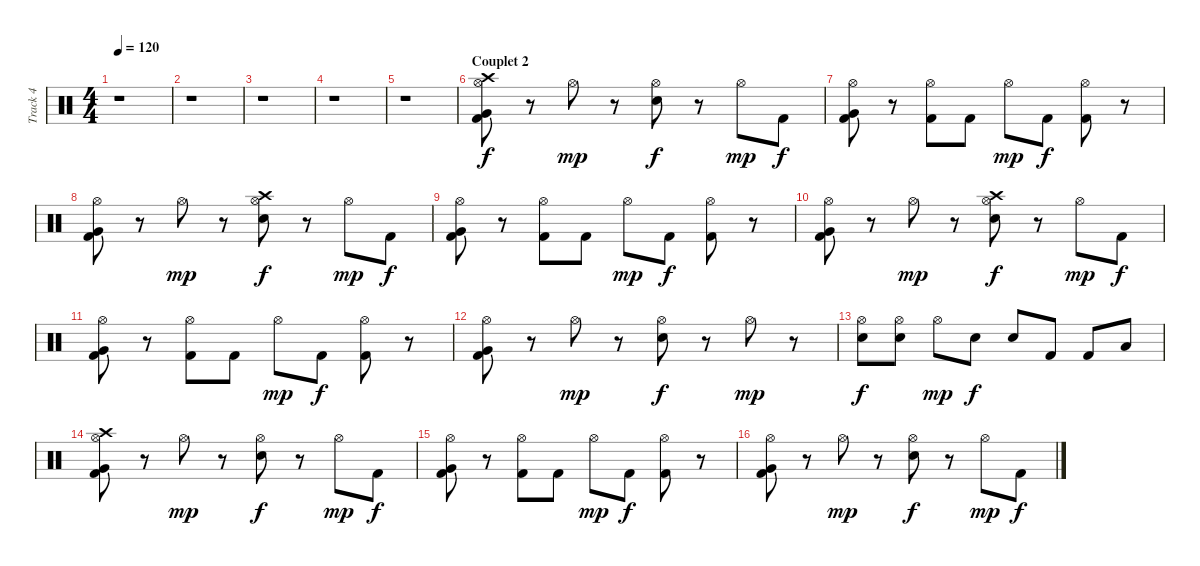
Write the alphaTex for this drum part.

\track ("Track 4" "Track 4") {instrument percussion}
\staff {score}
\articulation defaults
\ts (4 4)
\tempo 120
\clef neutral
\ks c
r.1{dy f} |
r.1 |
r.1 |
r.1 |
r.1 |
\section ("" "Couplet 2")
("Hi-Hat (open)" "Kick (hit) 2" "Very Low Tom (hit)" "Crash high (hit)").8 r.8 "Hi-Hat (open)".8{dy mp} r.8 ("Hi-Hat (open)" "Snare (hit) 2").8{dy f} r.8 "Hi-Hat (open)".8{dy mp} "Kick (hit) 2".8{dy f} |
("Hi-Hat (open)" "Kick (hit) 2" "Very Low Tom (hit)").8 r.8 ("Hi-Hat (open)" "Kick (hit) 2").8 "Kick (hit) 2".8 "Hi-Hat (open)".8{dy mp} "Kick (hit) 2".8{dy f} ("Hi-Hat (open)" "Kick (hit) 2").8 r.8 |
("Hi-Hat (open)" "Kick (hit) 2" "Very Low Tom (hit)").8 r.8 "Hi-Hat (open)".8{dy mp} r.8 ("Hi-Hat (open)" "Snare (hit) 2" "Crash high (hit)").8{dy f} r.8 "Hi-Hat (open)".8{dy mp} "Kick (hit) 2".8{dy f} |
("Hi-Hat (open)" "Kick (hit) 2" "Very Low Tom (hit)").8 r.8 ("Hi-Hat (open)" "Kick (hit) 2").8 "Kick (hit) 2".8 "Hi-Hat (open)".8{dy mp} "Kick (hit) 2".8{dy f} ("Hi-Hat (open)" "Kick (hit) 2").8 r.8 |
("Hi-Hat (open)" "Kick (hit) 2" "Very Low Tom (hit)").8 r.8 "Hi-Hat (open)".8{dy mp} r.8 ("Hi-Hat (open)" "Snare (hit) 2" "Crash high (hit)").8{dy f} r.8 "Hi-Hat (open)".8{dy mp} "Kick (hit) 2".8{dy f} |
("Hi-Hat (open)" "Kick (hit) 2" "Very Low Tom (hit)").8 r.8 ("Hi-Hat (open)" "Kick (hit) 2").8 "Kick (hit) 2".8 "Hi-Hat (open)".8{dy mp} "Kick (hit) 2".8{dy f} ("Hi-Hat (open)" "Kick (hit) 2").8 r.8 |
("Hi-Hat (open)" "Kick (hit) 2" "Very Low Tom (hit)").8 r.8 "Hi-Hat (open)".8{dy mp} r.8 ("Hi-Hat (open)" "Snare (hit) 2").8{dy f} r.8 "Hi-Hat (open)".8{dy mp} r.8 |
("Hi-Hat (open)" "Electric Snare (hit)").8{dy f} ("Hi-Hat (open)" "Electric Snare (hit)").8 "Hi-Hat (open)".8{dy mp} "Electric Snare (hit)".8{dy f} "Electric Snare (hit)".8 "Kick (hit) 2".8 "Kick (hit) 2".8 "Low Floor Tom (hit)".8 |
("Hi-Hat (open)" "Kick (hit) 2" "Very Low Tom (hit)" "Crash high (hit)").8 r.8 "Hi-Hat (open)".8{dy mp} r.8 ("Hi-Hat (open)" "Snare (hit) 2").8{dy f} r.8 "Hi-Hat (open)".8{dy mp} "Kick (hit) 2".8{dy f} |
("Hi-Hat (open)" "Kick (hit) 2" "Very Low Tom (hit)").8 r.8 ("Hi-Hat (open)" "Kick (hit) 2").8 "Kick (hit) 2".8 "Hi-Hat (open)".8{dy mp} "Kick (hit) 2".8{dy f} ("Hi-Hat (open)" "Kick (hit) 2").8 r.8 |
("Hi-Hat (open)" "Kick (hit) 2" "Very Low Tom (hit)").8 r.8 "Hi-Hat (open)".8{dy mp} r.8 ("Hi-Hat (open)" "Snare (hit) 2").8{dy f} r.8 "Hi-Hat (open)".8{dy mp} "Kick (hit) 2".8{dy f}
